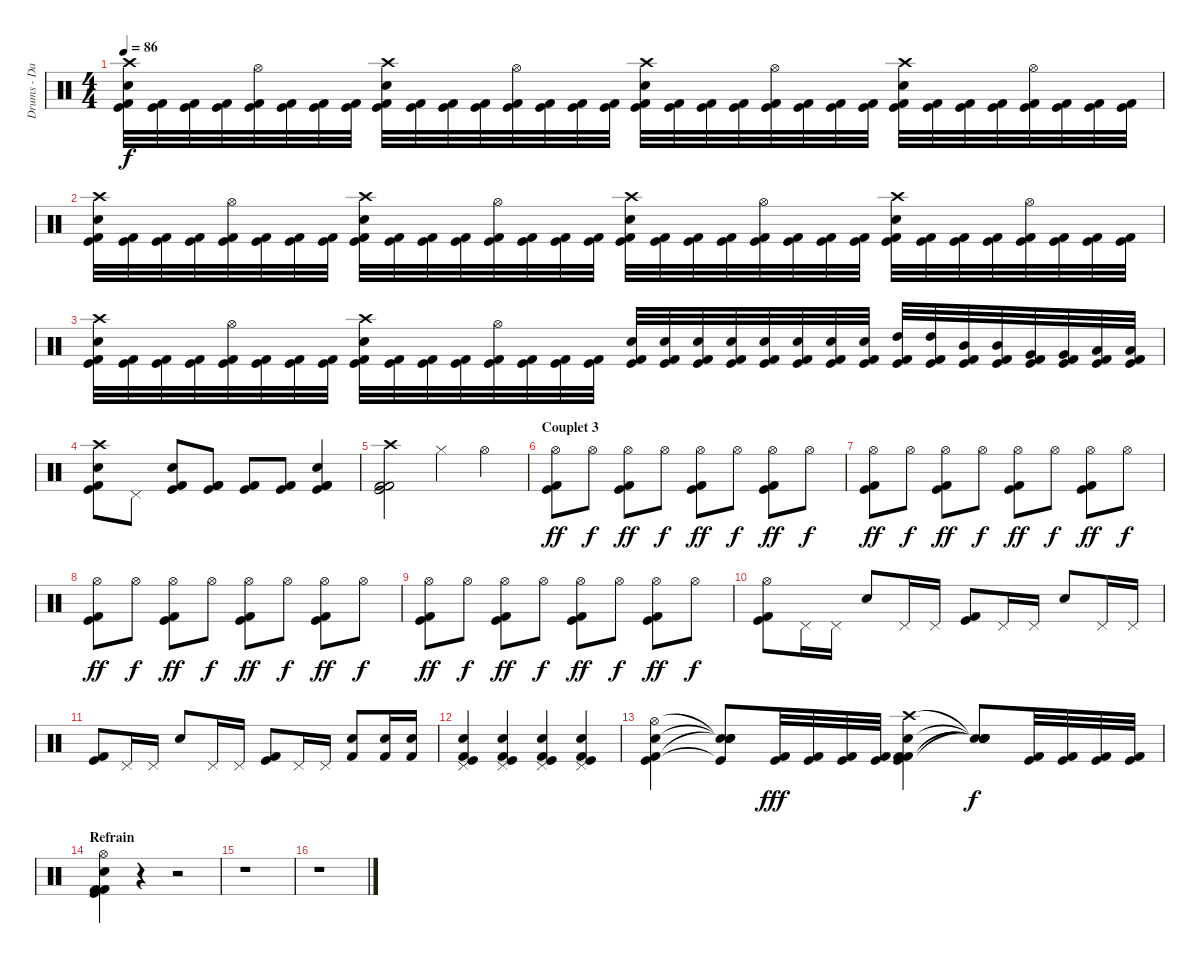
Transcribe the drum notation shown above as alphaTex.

\track ("Drums - Daniel Zimmermann" "Drums - Da") {instrument percussion}
\staff {score}
\articulation defaults
\ts (4 4)
\tempo 86
\clef neutral
\ks c
("Kick (hit)" "Kick (hit) 2" "Electric Snare (hit)" "Crash high (hit)").32{dy f} ("Kick (hit)" "Kick (hit) 2").32 ("Kick (hit)" "Kick (hit) 2").32 ("Kick (hit)" "Kick (hit) 2").32 ("Kick (hit)" "Kick (hit) 2" "Hi-Hat (open)").32 ("Kick (hit)" "Kick (hit) 2").32 ("Kick (hit)" "Kick (hit) 2").32 ("Kick (hit)" "Kick (hit) 2").32 ("Kick (hit)" "Kick (hit) 2" "Electric Snare (hit)" "Crash high (hit)").32 ("Kick (hit)" "Kick (hit) 2").32 ("Kick (hit)" "Kick (hit) 2").32 ("Kick (hit)" "Kick (hit) 2").32 ("Kick (hit)" "Kick (hit) 2" "Hi-Hat (open)").32 ("Kick (hit)" "Kick (hit) 2").32 ("Kick (hit)" "Kick (hit) 2").32 ("Kick (hit)" "Kick (hit) 2").32 ("Kick (hit)" "Kick (hit) 2" "Electric Snare (hit)" "Crash high (hit)").32 ("Kick (hit)" "Kick (hit) 2").32 ("Kick (hit)" "Kick (hit) 2").32 ("Kick (hit)" "Kick (hit) 2").32 ("Kick (hit)" "Kick (hit) 2" "Hi-Hat (open)").32 ("Kick (hit)" "Kick (hit) 2").32 ("Kick (hit)" "Kick (hit) 2").32 ("Kick (hit)" "Kick (hit) 2").32 ("Kick (hit)" "Kick (hit) 2" "Electric Snare (hit)" "Crash high (hit)").32 ("Kick (hit)" "Kick (hit) 2").32 ("Kick (hit)" "Kick (hit) 2").32 ("Kick (hit)" "Kick (hit) 2").32 ("Kick (hit)" "Kick (hit) 2" "Hi-Hat (open)").32 ("Kick (hit)" "Kick (hit) 2").32 ("Kick (hit)" "Kick (hit) 2").32 ("Kick (hit)" "Kick (hit) 2").32 |
("Kick (hit)" "Kick (hit) 2" "Electric Snare (hit)" "Crash high (hit)").32 ("Kick (hit)" "Kick (hit) 2").32 ("Kick (hit)" "Kick (hit) 2").32 ("Kick (hit)" "Kick (hit) 2").32 ("Kick (hit)" "Kick (hit) 2" "Hi-Hat (open)").32 ("Kick (hit)" "Kick (hit) 2").32 ("Kick (hit)" "Kick (hit) 2").32 ("Kick (hit)" "Kick (hit) 2").32 ("Kick (hit)" "Kick (hit) 2" "Electric Snare (hit)" "Crash high (hit)").32 ("Kick (hit)" "Kick (hit) 2").32 ("Kick (hit)" "Kick (hit) 2").32 ("Kick (hit)" "Kick (hit) 2").32 ("Kick (hit)" "Kick (hit) 2" "Hi-Hat (open)").32 ("Kick (hit)" "Kick (hit) 2").32 ("Kick (hit)" "Kick (hit) 2").32 ("Kick (hit)" "Kick (hit) 2").32 ("Kick (hit)" "Kick (hit) 2" "Electric Snare (hit)" "Crash high (hit)").32 ("Kick (hit)" "Kick (hit) 2").32 ("Kick (hit)" "Kick (hit) 2").32 ("Kick (hit)" "Kick (hit) 2").32 ("Kick (hit)" "Kick (hit) 2" "Hi-Hat (open)").32 ("Kick (hit)" "Kick (hit) 2").32 ("Kick (hit)" "Kick (hit) 2").32 ("Kick (hit)" "Kick (hit) 2").32 ("Kick (hit)" "Kick (hit) 2" "Electric Snare (hit)" "Crash high (hit)").32 ("Kick (hit)" "Kick (hit) 2").32 ("Kick (hit)" "Kick (hit) 2").32 ("Kick (hit)" "Kick (hit) 2").32 ("Kick (hit)" "Kick (hit) 2" "Hi-Hat (open)").32 ("Kick (hit)" "Kick (hit) 2").32 ("Kick (hit)" "Kick (hit) 2").32 ("Kick (hit)" "Kick (hit) 2").32 |
("Kick (hit)" "Kick (hit) 2" "Electric Snare (hit)" "Crash high (hit)").32 ("Kick (hit)" "Kick (hit) 2").32 ("Kick (hit)" "Kick (hit) 2").32 ("Kick (hit)" "Kick (hit) 2").32 ("Kick (hit)" "Kick (hit) 2" "Hi-Hat (open)").32 ("Kick (hit)" "Kick (hit) 2").32 ("Kick (hit)" "Kick (hit) 2").32 ("Kick (hit)" "Kick (hit) 2").32 ("Kick (hit)" "Kick (hit) 2" "Electric Snare (hit)" "Crash high (hit)").32 ("Kick (hit)" "Kick (hit) 2").32 ("Kick (hit)" "Kick (hit) 2").32 ("Kick (hit)" "Kick (hit) 2").32 ("Kick (hit)" "Kick (hit) 2" "Hi-Hat (open)").32 ("Kick (hit)" "Kick (hit) 2").32 ("Kick (hit)" "Kick (hit) 2").32 ("Kick (hit)" "Kick (hit) 2").32 ("Kick (hit)" "Kick (hit) 2" "Electric Snare (hit)").32 ("Kick (hit)" "Kick (hit) 2" "Electric Snare (hit)").32 ("Kick (hit)" "Kick (hit) 2" "Electric Snare (hit)").32 ("Kick (hit)" "Kick (hit) 2" "Electric Snare (hit)").32 ("Kick (hit)" "Kick (hit) 2" "Electric Snare (hit)").32 ("Kick (hit)" "Kick (hit) 2" "Electric Snare (hit)").32 ("Kick (hit)" "Kick (hit) 2" "Electric Snare (hit)").32 ("Kick (hit)" "Kick (hit) 2" "Electric Snare (hit)").32 ("Kick (hit)" "Kick (hit) 2" "High Tom (hit)").32 ("Kick (hit)" "Kick (hit) 2" "High Tom (hit)").32 ("Kick (hit)" "Kick (hit) 2" "Mid Tom (hit)").32 ("Kick (hit)" "Kick (hit) 2" "Mid Tom (hit)").32 ("Kick (hit)" "Kick (hit) 2" "Very Low Tom (hit)").32 ("Kick (hit)" "Kick (hit) 2" "Very Low Tom (hit)").32 ("Kick (hit)" "Kick (hit) 2" "Low Floor Tom (hit)").32 ("Kick (hit)" "Kick (hit) 2" "Low Floor Tom (hit)").32 |
("Kick (hit)" "Kick (hit) 2" "Electric Snare (hit)" "Crash high (hit)").8 "Pedal Hi-Hat (hit)".8 ("Kick (hit)" "Kick (hit) 2" "Electric Snare (hit)").8 ("Kick (hit)" "Kick (hit) 2" "Kick (hit) 2").8 ("Kick (hit)" "Kick (hit) 2").8 ("Kick (hit)" "Kick (hit) 2").8 ("Kick (hit)" "Kick (hit) 2" "Kick (hit) 2" "Electric Snare (hit)").4 |
("Kick (hit)" "Kick (hit) 2" "Kick (hit) 2" "Crash high (hit)").2 "Hi-Hat (closed)".4 "Hi-Hat (open)".4 |
\section ("" "Couplet 3")
("Kick (hit)" "Kick (hit) 2" "Hi-Hat (open)").8{dy ff} "Hi-Hat (open)".8{dy f} ("Kick (hit)" "Kick (hit) 2" "Hi-Hat (open)").8{dy ff} "Hi-Hat (open)".8{dy f} ("Kick (hit)" "Kick (hit) 2" "Hi-Hat (open)").8{dy ff} "Hi-Hat (open)".8{dy f} ("Kick (hit)" "Kick (hit) 2" "Hi-Hat (open)").8{dy ff} "Hi-Hat (open)".8{dy f} |
("Kick (hit)" "Kick (hit) 2" "Hi-Hat (open)").8{dy ff} "Hi-Hat (open)".8{dy f} ("Kick (hit)" "Kick (hit) 2" "Hi-Hat (open)").8{dy ff} "Hi-Hat (open)".8{dy f} ("Kick (hit)" "Kick (hit) 2" "Hi-Hat (open)").8{dy ff} "Hi-Hat (open)".8{dy f} ("Kick (hit)" "Kick (hit) 2" "Hi-Hat (open)").8{dy ff} "Hi-Hat (open)".8{dy f} |
("Kick (hit)" "Kick (hit) 2" "Hi-Hat (open)").8{dy ff} "Hi-Hat (open)".8{dy f} ("Kick (hit)" "Kick (hit) 2" "Hi-Hat (open)").8{dy ff} "Hi-Hat (open)".8{dy f} ("Kick (hit)" "Kick (hit) 2" "Hi-Hat (open)").8{dy ff} "Hi-Hat (open)".8{dy f} ("Kick (hit)" "Kick (hit) 2" "Hi-Hat (open)").8{dy ff} "Hi-Hat (open)".8{dy f} |
("Kick (hit)" "Kick (hit) 2" "Hi-Hat (open)").8{dy ff} "Hi-Hat (open)".8{dy f} ("Kick (hit)" "Kick (hit) 2" "Hi-Hat (open)").8{dy ff} "Hi-Hat (open)".8{dy f} ("Kick (hit)" "Kick (hit) 2" "Hi-Hat (open)").8{dy ff} "Hi-Hat (open)".8{dy f} ("Kick (hit)" "Kick (hit) 2" "Hi-Hat (open)").8{dy ff} "Hi-Hat (open)".8{dy f} |
("Kick (hit)" "Kick (hit) 2" "Hi-Hat (open)").8 "Pedal Hi-Hat (hit)".16 "Pedal Hi-Hat (hit)".16 "Electric Snare (hit)".8 "Pedal Hi-Hat (hit)".16 "Pedal Hi-Hat (hit)".16 ("Kick (hit)" "Kick (hit) 2").8 "Pedal Hi-Hat (hit)".16 "Pedal Hi-Hat (hit)".16 "Electric Snare (hit)".8 "Pedal Hi-Hat (hit)".16 "Pedal Hi-Hat (hit)".16 |
("Kick (hit)" "Kick (hit) 2").8 "Pedal Hi-Hat (hit)".16 "Pedal Hi-Hat (hit)".16 "Electric Snare (hit)".8 "Pedal Hi-Hat (hit)".16 "Pedal Hi-Hat (hit)".16 ("Kick (hit)" "Kick (hit) 2").8 "Pedal Hi-Hat (hit)".16 "Pedal Hi-Hat (hit)".16 ("Kick (hit) 2" "Electric Snare (hit)").8 ("Kick (hit) 2" "Electric Snare (hit)").16 ("Kick (hit) 2" "Electric Snare (hit)").16 |
("Kick (hit)" "Kick (hit) 2" "Electric Snare (hit)" "Pedal Hi-Hat (hit)").4 ("Kick (hit)" "Kick (hit) 2" "Electric Snare (hit)" "Pedal Hi-Hat (hit)").4 ("Kick (hit)" "Kick (hit) 2" "Electric Snare (hit)" "Pedal Hi-Hat (hit)").4 ("Kick (hit)" "Kick (hit) 2" "Electric Snare (hit)" "Pedal Hi-Hat (hit)").4 |
("Kick (hit)" "Kick (hit) 2" "Electric Snare (hit)" "Hi-Hat (open)").4 ("Kick (hit)"{t} "Snare (hit)"{t} "Snare (hit)"{t} "Snare (hit)"{t}).8 ("Kick (hit)" "Kick (hit) 2").32{dy fff} ("Kick (hit)" "Kick (hit) 2").32 ("Kick (hit)" "Kick (hit) 2").32 ("Kick (hit)" "Kick (hit) 2").32 ("Kick (hit)" "Kick (hit) 2" "Kick (hit) 2" "Electric Snare (hit)" "Crash high (hit)").4 ("Snare (hit)"{t} "Snare (hit)"{t} "Snare (hit)"{t} "Snare (hit)"{t} "Snare (hit)"{t}).8{dy f} ("Kick (hit)" "Kick (hit) 2").32 ("Kick (hit)" "Kick (hit) 2").32 ("Kick (hit)" "Kick (hit) 2").32 ("Kick (hit)" "Kick (hit) 2").32 |
\section ("" "Refrain")
("Kick (hit)" "Kick (hit) 2" "Kick (hit) 2" "Electric Snare (hit)" "Hi-Hat (open)").4 r.4 r.2 |
r.1 |
r.1
